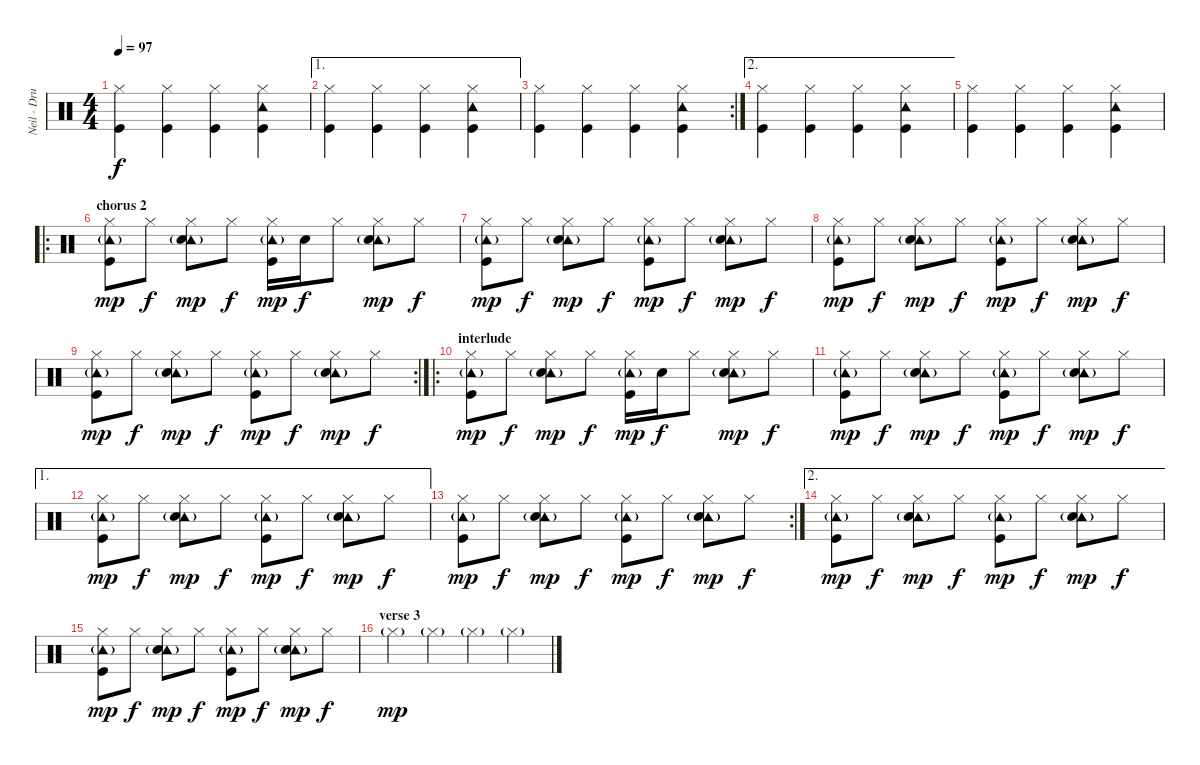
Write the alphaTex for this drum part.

\track ("Neil - Drums" "Neil - Dru") {instrument percussion}
\staff {score}
\articulation defaults
\ts (4 4)
\tempo 97
\clef neutral
\ks c
("Hi-Hat (closed)" "Kick (hit)").4{dy f} ("Hi-Hat (closed)" "Kick (hit)").4 ("Hi-Hat (closed)" "Kick (hit)").4 ("Hi-Hat (closed)" "Tambourine (hit)" "Kick (hit)").4 |
\ae 1
("Hi-Hat (closed)" "Kick (hit)").4 ("Hi-Hat (closed)" "Kick (hit)").4 ("Hi-Hat (closed)" "Kick (hit)").4 ("Hi-Hat (closed)" "Tambourine (hit)" "Kick (hit)").4 |
\rc 2
("Hi-Hat (closed)" "Kick (hit)").4 ("Hi-Hat (closed)" "Kick (hit)").4 ("Hi-Hat (closed)" "Kick (hit)").4 ("Hi-Hat (closed)" "Tambourine (hit)" "Kick (hit)").4 |
\ae 2
("Hi-Hat (closed)" "Kick (hit)").4 ("Hi-Hat (closed)" "Kick (hit)").4 ("Hi-Hat (closed)" "Kick (hit)").4 ("Hi-Hat (closed)" "Tambourine (hit)" "Kick (hit)").4 |
("Hi-Hat (closed)" "Kick (hit)").4 ("Hi-Hat (closed)" "Kick (hit)").4 ("Hi-Hat (closed)" "Kick (hit)").4 ("Hi-Hat (closed)" "Tambourine (hit)" "Kick (hit)").4 |
\ro
\section ("" "chorus 2")
("Hi-Hat (closed)" "Tambourine (hit)"{g} "Kick (hit)").8{dy mp} "Hi-Hat (closed)".8{dy f} ("Hi-Hat (closed)" "Tambourine (hit)"{g} "Electric Snare (hit)").8{dy mp} "Hi-Hat (closed)".8{dy f} ("Hi-Hat (closed)" "Tambourine (hit)"{g} "Kick (hit)").16{dy mp} "Electric Snare (hit)".16{dy f} "Hi-Hat (closed)".8 ("Hi-Hat (closed)" "Tambourine (hit)"{g} "Electric Snare (hit)").8{dy mp} "Hi-Hat (closed)".8{dy f} |
("Hi-Hat (closed)" "Tambourine (hit)"{g} "Kick (hit)").8{dy mp} "Hi-Hat (closed)".8{dy f} ("Hi-Hat (closed)" "Tambourine (hit)"{g} "Electric Snare (hit)").8{dy mp} "Hi-Hat (closed)".8{dy f} ("Hi-Hat (closed)" "Tambourine (hit)"{g} "Kick (hit)").8{dy mp} "Hi-Hat (closed)".8{dy f} ("Hi-Hat (closed)" "Tambourine (hit)"{g} "Electric Snare (hit)").8{dy mp} "Hi-Hat (closed)".8{dy f} |
("Hi-Hat (closed)" "Tambourine (hit)"{g} "Kick (hit)").8{dy mp} "Hi-Hat (closed)".8{dy f} ("Hi-Hat (closed)" "Tambourine (hit)"{g} "Electric Snare (hit)").8{dy mp} "Hi-Hat (closed)".8{dy f} ("Hi-Hat (closed)" "Tambourine (hit)"{g} "Kick (hit)").8{dy mp} "Hi-Hat (closed)".8{dy f} ("Hi-Hat (closed)" "Tambourine (hit)"{g} "Electric Snare (hit)").8{dy mp} "Hi-Hat (closed)".8{dy f} |
\rc 2
("Hi-Hat (closed)" "Tambourine (hit)"{g} "Kick (hit)").8{dy mp} "Hi-Hat (closed)".8{dy f} ("Hi-Hat (closed)" "Tambourine (hit)"{g} "Electric Snare (hit)").8{dy mp} "Hi-Hat (closed)".8{dy f} ("Hi-Hat (closed)" "Tambourine (hit)"{g} "Kick (hit)").8{dy mp} "Hi-Hat (closed)".8{dy f} ("Hi-Hat (closed)" "Tambourine (hit)"{g} "Electric Snare (hit)").8{dy mp} "Hi-Hat (closed)".8{dy f} |
\ro
\section ("" "interlude")
("Hi-Hat (closed)" "Tambourine (hit)"{g} "Kick (hit)").8{dy mp} "Hi-Hat (closed)".8{dy f} ("Hi-Hat (closed)" "Tambourine (hit)"{g} "Electric Snare (hit)").8{dy mp} "Hi-Hat (closed)".8{dy f} ("Hi-Hat (closed)" "Tambourine (hit)"{g} "Kick (hit)").16{dy mp} "Electric Snare (hit)".16{dy f} "Hi-Hat (closed)".8 ("Hi-Hat (closed)" "Tambourine (hit)"{g} "Electric Snare (hit)").8{dy mp} "Hi-Hat (closed)".8{dy f} |
("Hi-Hat (closed)" "Tambourine (hit)"{g} "Kick (hit)").8{dy mp} "Hi-Hat (closed)".8{dy f} ("Hi-Hat (closed)" "Tambourine (hit)"{g} "Electric Snare (hit)").8{dy mp} "Hi-Hat (closed)".8{dy f} ("Hi-Hat (closed)" "Tambourine (hit)"{g} "Kick (hit)").8{dy mp} "Hi-Hat (closed)".8{dy f} ("Hi-Hat (closed)" "Tambourine (hit)"{g} "Electric Snare (hit)").8{dy mp} "Hi-Hat (closed)".8{dy f} |
\ae 1
("Hi-Hat (closed)" "Tambourine (hit)"{g} "Kick (hit)").8{dy mp} "Hi-Hat (closed)".8{dy f} ("Hi-Hat (closed)" "Tambourine (hit)"{g} "Electric Snare (hit)").8{dy mp} "Hi-Hat (closed)".8{dy f} ("Hi-Hat (closed)" "Tambourine (hit)"{g} "Kick (hit)").8{dy mp} "Hi-Hat (closed)".8{dy f} ("Hi-Hat (closed)" "Tambourine (hit)"{g} "Electric Snare (hit)").8{dy mp} "Hi-Hat (closed)".8{dy f} |
\rc 2
("Hi-Hat (closed)" "Tambourine (hit)"{g} "Kick (hit)").8{dy mp} "Hi-Hat (closed)".8{dy f} ("Hi-Hat (closed)" "Tambourine (hit)"{g} "Electric Snare (hit)").8{dy mp} "Hi-Hat (closed)".8{dy f} ("Hi-Hat (closed)" "Tambourine (hit)"{g} "Kick (hit)").8{dy mp} "Hi-Hat (closed)".8{dy f} ("Hi-Hat (closed)" "Tambourine (hit)"{g} "Electric Snare (hit)").8{dy mp} "Hi-Hat (closed)".8{dy f} |
\ae 2
("Hi-Hat (closed)" "Tambourine (hit)"{g} "Kick (hit)").8{dy mp} "Hi-Hat (closed)".8{dy f} ("Hi-Hat (closed)" "Tambourine (hit)"{g} "Electric Snare (hit)").8{dy mp} "Hi-Hat (closed)".8{dy f} ("Hi-Hat (closed)" "Tambourine (hit)"{g} "Kick (hit)").8{dy mp} "Hi-Hat (closed)".8{dy f} ("Hi-Hat (closed)" "Tambourine (hit)"{g} "Electric Snare (hit)").8{dy mp} "Hi-Hat (closed)".8{dy f} |
("Hi-Hat (closed)" "Tambourine (hit)"{g} "Kick (hit)").8{dy mp} "Hi-Hat (closed)".8{dy f} ("Hi-Hat (closed)" "Tambourine (hit)"{g} "Electric Snare (hit)").8{dy mp} "Hi-Hat (closed)".8{dy f} ("Hi-Hat (closed)" "Tambourine (hit)"{g} "Kick (hit)").8{dy mp} "Hi-Hat (closed)".8{dy f} ("Hi-Hat (closed)" "Tambourine (hit)"{g} "Electric Snare (hit)").8{dy mp} "Hi-Hat (closed)".8{dy f} |
\section ("" "verse 3")
"Hi-Hat (closed)"{g}.4{dy mp} "Hi-Hat (closed)"{g}.4 "Hi-Hat (closed)"{g}.4 "Hi-Hat (closed)"{g}.4
